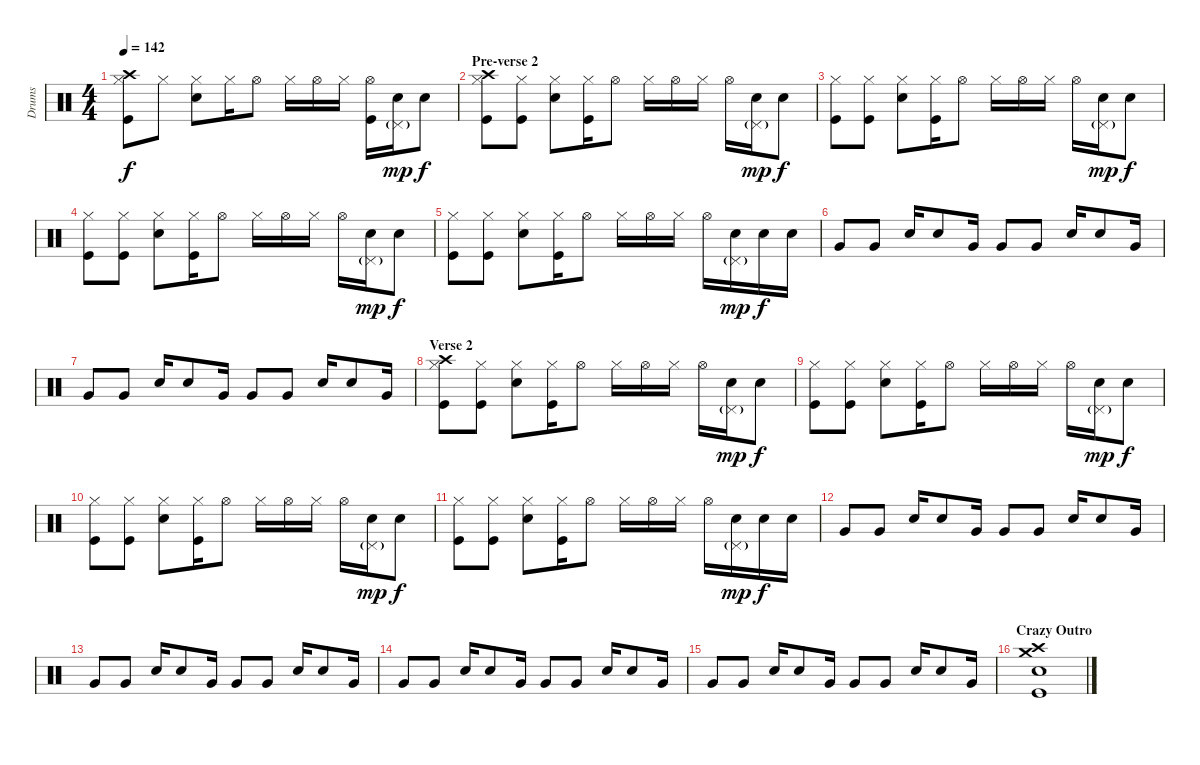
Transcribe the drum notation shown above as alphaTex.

\track ("Drums" "Drums") {instrument percussion}
\staff {score}
\articulation defaults
\ts (4 4)
\tempo 142
\clef neutral
\ks c
("Hi-Hat (closed)" "Crash high (hit)" "Kick (hit)").8{dy f} "Hi-Hat (closed)".8 ("Hi-Hat (closed)" "Snare (hit) 2").8 "Hi-Hat (closed)".16 "Hi-Hat (open)".8 "Hi-Hat (closed)".16 "Hi-Hat (open)".16 "Hi-Hat (closed)".16 ("Hi-Hat (open)" "Kick (hit)").16 ("Pedal Hi-Hat (hit)"{g} "Snare (hit) 2").16{dy mp} "Snare (hit) 2".8{dy f} |
\section ("" "Pre-verse 2")
("Hi-Hat (closed)" "Crash high (hit)" "Kick (hit)").8 ("Hi-Hat (closed)" "Kick (hit)").8 ("Hi-Hat (closed)" "Snare (hit) 2").8 ("Hi-Hat (closed)" "Kick (hit)").16 "Hi-Hat (open)".8 "Hi-Hat (closed)".16 "Hi-Hat (open)".16 "Hi-Hat (closed)".16 "Hi-Hat (open)".16 ("Pedal Hi-Hat (hit)"{g} "Snare (hit) 2").16{dy mp} "Snare (hit) 2".8{dy f} |
("Hi-Hat (closed)" "Kick (hit)").8 ("Hi-Hat (closed)" "Kick (hit)").8 ("Hi-Hat (closed)" "Snare (hit) 2").8 ("Hi-Hat (closed)" "Kick (hit)").16 "Hi-Hat (open)".8 "Hi-Hat (closed)".16 "Hi-Hat (open)".16 "Hi-Hat (closed)".16 "Hi-Hat (open)".16 ("Pedal Hi-Hat (hit)"{g} "Snare (hit) 2").16{dy mp} "Snare (hit) 2".8{dy f} |
("Hi-Hat (closed)" "Kick (hit)").8 ("Hi-Hat (closed)" "Kick (hit)").8 ("Hi-Hat (closed)" "Snare (hit) 2").8 ("Hi-Hat (closed)" "Kick (hit)").16 "Hi-Hat (open)".8 "Hi-Hat (closed)".16 "Hi-Hat (open)".16 "Hi-Hat (closed)".16 "Hi-Hat (open)".16 ("Pedal Hi-Hat (hit)"{g} "Snare (hit) 2").16{dy mp} "Snare (hit) 2".8{dy f} |
("Hi-Hat (closed)" "Kick (hit)").8 ("Hi-Hat (closed)" "Kick (hit)").8 ("Hi-Hat (closed)" "Snare (hit) 2").8 ("Hi-Hat (closed)" "Kick (hit)").16 "Hi-Hat (open)".8 "Hi-Hat (closed)".16 "Hi-Hat (open)".16 "Hi-Hat (closed)".16 "Hi-Hat (open)".16 ("Pedal Hi-Hat (hit)"{g} "Snare (hit) 2").16{dy mp} "Snare (hit) 2".16{dy f} "Snare (hit) 2".16 |
"Very Low Tom (hit)".8 "Very Low Tom (hit)".8 "Snare (hit) 2".16 "Snare (hit) 2".8 "Very Low Tom (hit)".16 "Very Low Tom (hit)".8 "Very Low Tom (hit)".8 "Snare (hit) 2".16 "Snare (hit) 2".8 "Very Low Tom (hit)".16 |
"Very Low Tom (hit)".8 "Very Low Tom (hit)".8 "Snare (hit) 2".16 "Snare (hit) 2".8 "Very Low Tom (hit)".16 "Very Low Tom (hit)".8 "Very Low Tom (hit)".8 "Snare (hit) 2".16 "Snare (hit) 2".8 "Very Low Tom (hit)".16 |
\section ("" "Verse 2")
("Hi-Hat (closed)" "Crash high (hit)" "Kick (hit)").8 ("Hi-Hat (closed)" "Kick (hit)").8 ("Hi-Hat (closed)" "Snare (hit) 2").8 ("Hi-Hat (closed)" "Kick (hit)").16 "Hi-Hat (open)".8 "Hi-Hat (closed)".16 "Hi-Hat (open)".16 "Hi-Hat (closed)".16 "Hi-Hat (open)".16 ("Pedal Hi-Hat (hit)"{g} "Snare (hit) 2").16{dy mp} "Snare (hit) 2".8{dy f} |
("Hi-Hat (closed)" "Kick (hit)").8 ("Hi-Hat (closed)" "Kick (hit)").8 ("Hi-Hat (closed)" "Snare (hit) 2").8 ("Hi-Hat (closed)" "Kick (hit)").16 "Hi-Hat (open)".8 "Hi-Hat (closed)".16 "Hi-Hat (open)".16 "Hi-Hat (closed)".16 "Hi-Hat (open)".16 ("Pedal Hi-Hat (hit)"{g} "Snare (hit) 2").16{dy mp} "Snare (hit) 2".8{dy f} |
("Hi-Hat (closed)" "Kick (hit)").8 ("Hi-Hat (closed)" "Kick (hit)").8 ("Hi-Hat (closed)" "Snare (hit) 2").8 ("Hi-Hat (closed)" "Kick (hit)").16 "Hi-Hat (open)".8 "Hi-Hat (closed)".16 "Hi-Hat (open)".16 "Hi-Hat (closed)".16 "Hi-Hat (open)".16 ("Pedal Hi-Hat (hit)"{g} "Snare (hit) 2").16{dy mp} "Snare (hit) 2".8{dy f} |
("Hi-Hat (closed)" "Kick (hit)").8 ("Hi-Hat (closed)" "Kick (hit)").8 ("Hi-Hat (closed)" "Snare (hit) 2").8 ("Hi-Hat (closed)" "Kick (hit)").16 "Hi-Hat (open)".8 "Hi-Hat (closed)".16 "Hi-Hat (open)".16 "Hi-Hat (closed)".16 "Hi-Hat (open)".16 ("Pedal Hi-Hat (hit)"{g} "Snare (hit) 2").16{dy mp} "Snare (hit) 2".16{dy f} "Snare (hit) 2".16 |
"Very Low Tom (hit)".8 "Very Low Tom (hit)".8 "Snare (hit) 2".16 "Snare (hit) 2".8 "Very Low Tom (hit)".16 "Very Low Tom (hit)".8 "Very Low Tom (hit)".8 "Snare (hit) 2".16 "Snare (hit) 2".8 "Very Low Tom (hit)".16 |
"Very Low Tom (hit)".8 "Very Low Tom (hit)".8 "Snare (hit) 2".16 "Snare (hit) 2".8 "Very Low Tom (hit)".16 "Very Low Tom (hit)".8 "Very Low Tom (hit)".8 "Snare (hit) 2".16 "Snare (hit) 2".8 "Very Low Tom (hit)".16 |
"Very Low Tom (hit)".8 "Very Low Tom (hit)".8 "Snare (hit) 2".16 "Snare (hit) 2".8 "Very Low Tom (hit)".16 "Very Low Tom (hit)".8 "Very Low Tom (hit)".8 "Snare (hit) 2".16 "Snare (hit) 2".8 "Very Low Tom (hit)".16 |
"Very Low Tom (hit)".8 "Very Low Tom (hit)".8 "Snare (hit) 2".16 "Snare (hit) 2".8 "Very Low Tom (hit)".16 "Very Low Tom (hit)".8 "Very Low Tom (hit)".8 "Snare (hit) 2".16 "Snare (hit) 2".8 "Very Low Tom (hit)".16 |
\section ("" "Crazy Outro")
("Crash high (hit)" "Crash medium (hit)" "Snare (hit) 2" "Kick (hit)").1
